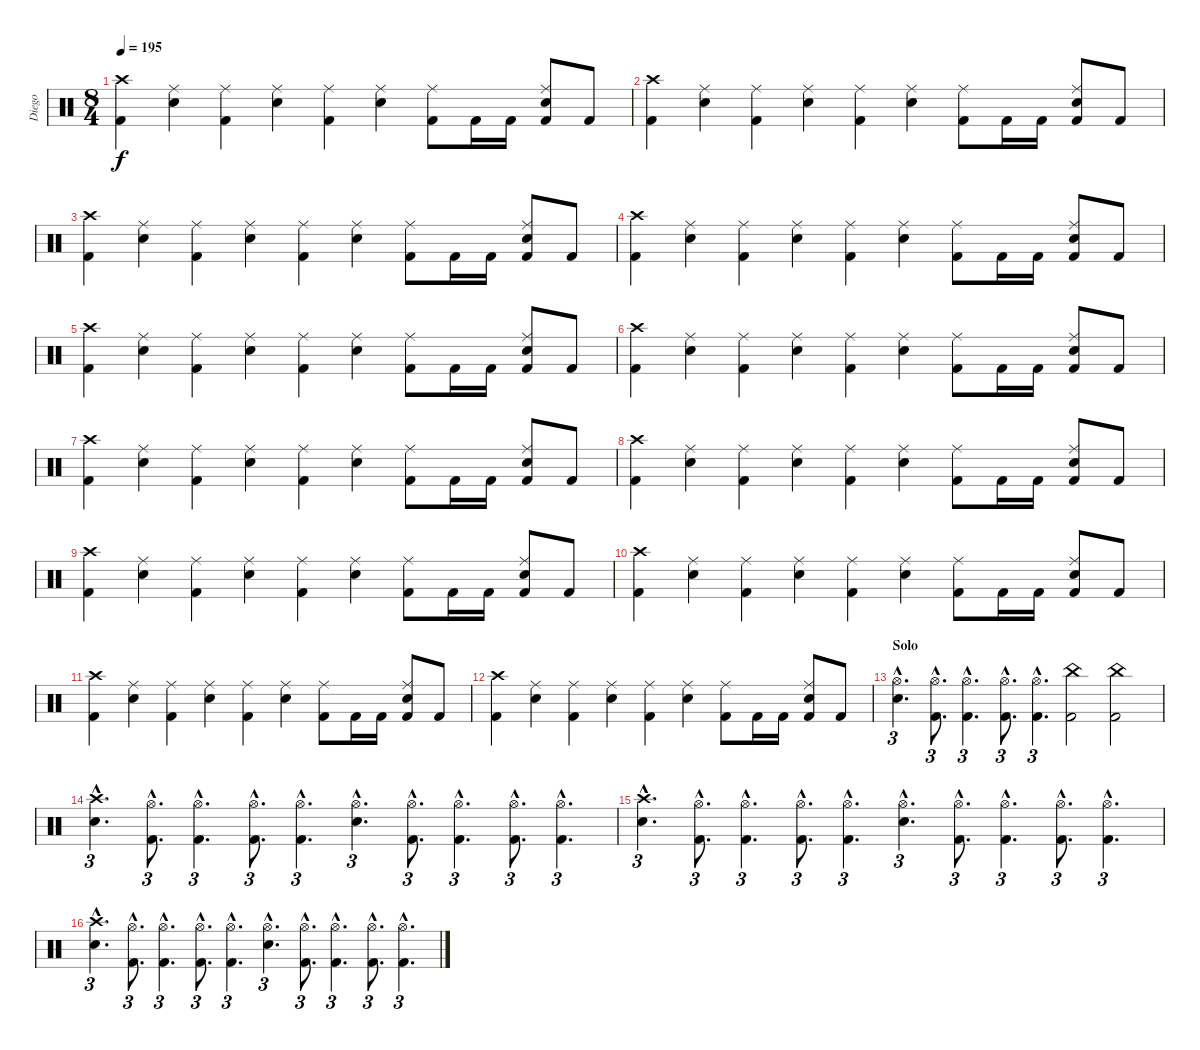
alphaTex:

\track ("Diego" "Diego") {instrument percussion}
\staff {score}
\articulation defaults
\ts (8 4)
\tempo 195
\clef neutral
\ks c
("Crash high (hit)" "Kick (hit) 2").4{dy f} ("Ride (middle)" "Electric Snare (hit)").4 ("Ride (middle)" "Kick (hit) 2").4 ("Ride (middle)" "Electric Snare (hit)").4 ("Ride (middle)" "Kick (hit) 2").4 ("Ride (middle)" "Electric Snare (hit)").4 ("Ride (middle)" "Kick (hit) 2").8 "Kick (hit) 2".16 "Kick (hit) 2".16 ("Ride (middle)" "Electric Snare (hit)" "Kick (hit) 2").8 "Kick (hit) 2".8 |
("Crash high (hit)" "Kick (hit) 2").4 ("Ride (middle)" "Electric Snare (hit)").4 ("Ride (middle)" "Kick (hit) 2").4 ("Ride (middle)" "Electric Snare (hit)").4 ("Ride (middle)" "Kick (hit) 2").4 ("Ride (middle)" "Electric Snare (hit)").4 ("Ride (middle)" "Kick (hit) 2").8 "Kick (hit) 2".16 "Kick (hit) 2".16 ("Ride (middle)" "Electric Snare (hit)" "Kick (hit) 2").8 "Kick (hit) 2".8 |
("Crash high (hit)" "Kick (hit) 2").4 ("Ride (middle)" "Electric Snare (hit)").4 ("Ride (middle)" "Kick (hit) 2").4 ("Ride (middle)" "Electric Snare (hit)").4 ("Ride (middle)" "Kick (hit) 2").4 ("Ride (middle)" "Electric Snare (hit)").4 ("Ride (middle)" "Kick (hit) 2").8 "Kick (hit) 2".16 "Kick (hit) 2".16 ("Ride (middle)" "Electric Snare (hit)" "Kick (hit) 2").8 "Kick (hit) 2".8 |
("Crash high (hit)" "Kick (hit) 2").4 ("Ride (middle)" "Electric Snare (hit)").4 ("Ride (middle)" "Kick (hit) 2").4 ("Ride (middle)" "Electric Snare (hit)").4 ("Ride (middle)" "Kick (hit) 2").4 ("Ride (middle)" "Electric Snare (hit)").4 ("Ride (middle)" "Kick (hit) 2").8 "Kick (hit) 2".16 "Kick (hit) 2".16 ("Ride (middle)" "Electric Snare (hit)" "Kick (hit) 2").8 "Kick (hit) 2".8 |
("Crash high (hit)" "Kick (hit) 2").4 ("Ride (middle)" "Electric Snare (hit)").4 ("Ride (middle)" "Kick (hit) 2").4 ("Ride (middle)" "Electric Snare (hit)").4 ("Ride (middle)" "Kick (hit) 2").4 ("Ride (middle)" "Electric Snare (hit)").4 ("Ride (middle)" "Kick (hit) 2").8 "Kick (hit) 2".16 "Kick (hit) 2".16 ("Ride (middle)" "Electric Snare (hit)" "Kick (hit) 2").8 "Kick (hit) 2".8 |
("Crash high (hit)" "Kick (hit) 2").4 ("Ride (middle)" "Electric Snare (hit)").4 ("Ride (middle)" "Kick (hit) 2").4 ("Ride (middle)" "Electric Snare (hit)").4 ("Ride (middle)" "Kick (hit) 2").4 ("Ride (middle)" "Electric Snare (hit)").4 ("Ride (middle)" "Kick (hit) 2").8 "Kick (hit) 2".16 "Kick (hit) 2".16 ("Ride (middle)" "Electric Snare (hit)" "Kick (hit) 2").8 "Kick (hit) 2".8 |
("Crash high (hit)" "Kick (hit) 2").4 ("Ride (middle)" "Electric Snare (hit)").4 ("Ride (middle)" "Kick (hit) 2").4 ("Ride (middle)" "Electric Snare (hit)").4 ("Ride (middle)" "Kick (hit) 2").4 ("Ride (middle)" "Electric Snare (hit)").4 ("Ride (middle)" "Kick (hit) 2").8 "Kick (hit) 2".16 "Kick (hit) 2".16 ("Ride (middle)" "Electric Snare (hit)" "Kick (hit) 2").8 "Kick (hit) 2".8 |
("Crash high (hit)" "Kick (hit) 2").4 ("Ride (middle)" "Electric Snare (hit)").4 ("Ride (middle)" "Kick (hit) 2").4 ("Ride (middle)" "Electric Snare (hit)").4 ("Ride (middle)" "Kick (hit) 2").4 ("Ride (middle)" "Electric Snare (hit)").4 ("Ride (middle)" "Kick (hit) 2").8 "Kick (hit) 2".16 "Kick (hit) 2".16 ("Ride (middle)" "Electric Snare (hit)" "Kick (hit) 2").8 "Kick (hit) 2".8 |
("Crash high (hit)" "Kick (hit) 2").4 ("Ride (middle)" "Electric Snare (hit)").4 ("Ride (middle)" "Kick (hit) 2").4 ("Ride (middle)" "Electric Snare (hit)").4 ("Ride (middle)" "Kick (hit) 2").4 ("Ride (middle)" "Electric Snare (hit)").4 ("Ride (middle)" "Kick (hit) 2").8 "Kick (hit) 2".16 "Kick (hit) 2".16 ("Ride (middle)" "Electric Snare (hit)" "Kick (hit) 2").8 "Kick (hit) 2".8 |
("Crash high (hit)" "Kick (hit) 2").4 ("Ride (middle)" "Electric Snare (hit)").4 ("Ride (middle)" "Kick (hit) 2").4 ("Ride (middle)" "Electric Snare (hit)").4 ("Ride (middle)" "Kick (hit) 2").4 ("Ride (middle)" "Electric Snare (hit)").4 ("Ride (middle)" "Kick (hit) 2").8 "Kick (hit) 2".16 "Kick (hit) 2".16 ("Ride (middle)" "Electric Snare (hit)" "Kick (hit) 2").8 "Kick (hit) 2".8 |
("Crash high (hit)" "Kick (hit) 2").4 ("Ride (middle)" "Electric Snare (hit)").4 ("Ride (middle)" "Kick (hit) 2").4 ("Ride (middle)" "Electric Snare (hit)").4 ("Ride (middle)" "Kick (hit) 2").4 ("Ride (middle)" "Electric Snare (hit)").4 ("Ride (middle)" "Kick (hit) 2").8 "Kick (hit) 2".16 "Kick (hit) 2".16 ("Ride (middle)" "Electric Snare (hit)" "Kick (hit) 2").8 "Kick (hit) 2".8 |
("Crash high (hit)" "Kick (hit) 2").4 ("Ride (middle)" "Electric Snare (hit)").4 ("Ride (middle)" "Kick (hit) 2").4 ("Ride (middle)" "Electric Snare (hit)").4 ("Ride (middle)" "Kick (hit) 2").4 ("Ride (middle)" "Electric Snare (hit)").4 ("Ride (middle)" "Kick (hit) 2").8 "Kick (hit) 2".16 "Kick (hit) 2".16 ("Ride (middle)" "Electric Snare (hit)" "Kick (hit) 2").8 "Kick (hit) 2".8 |
\section ("" "Solo")
("Hi-Hat (open)"{hac} "Electric Snare (hit)"{hac}).4{d tu (3 2)} ("Hi-Hat (open)"{hac} "Kick (hit) 2"{hac}).8{d tu (3 2)} ("Hi-Hat (open)"{hac} "Kick (hit) 2"{hac}).4{d tu (3 2)} ("Hi-Hat (open)"{hac} "Kick (hit) 2"{hac}).8{d tu (3 2)} ("Hi-Hat (open)"{hac} "Kick (hit) 2"{hac}).4{d tu (3 2)} ("China (hit)" "Kick (hit) 2").2 ("China (hit)" "Kick (hit) 2").2 |
("Crash high (hit)"{hac} "Electric Snare (hit)"{hac}).4{d tu (3 2)} ("Hi-Hat (open)"{hac} "Kick (hit) 2"{hac}).8{d tu (3 2)} ("Hi-Hat (open)"{hac} "Kick (hit) 2"{hac}).4{d tu (3 2)} ("Hi-Hat (open)"{hac} "Kick (hit) 2"{hac}).8{d tu (3 2)} ("Hi-Hat (open)"{hac} "Kick (hit) 2"{hac}).4{d tu (3 2)} ("Hi-Hat (open)"{hac} "Electric Snare (hit)"{hac}).4{d tu (3 2)} ("Hi-Hat (open)"{hac} "Kick (hit) 2"{hac}).8{d tu (3 2)} ("Hi-Hat (open)"{hac} "Kick (hit) 2"{hac}).4{d tu (3 2)} ("Hi-Hat (open)"{hac} "Kick (hit) 2"{hac}).8{d tu (3 2)} ("Hi-Hat (open)"{hac} "Kick (hit) 2"{hac}).4{d tu (3 2)} |
("Crash high (hit)"{hac} "Electric Snare (hit)"{hac}).4{d tu (3 2)} ("Hi-Hat (open)"{hac} "Kick (hit) 2"{hac}).8{d tu (3 2)} ("Hi-Hat (open)"{hac} "Kick (hit) 2"{hac}).4{d tu (3 2)} ("Hi-Hat (open)"{hac} "Kick (hit) 2"{hac}).8{d tu (3 2)} ("Hi-Hat (open)"{hac} "Kick (hit) 2"{hac}).4{d tu (3 2)} ("Hi-Hat (open)"{hac} "Electric Snare (hit)"{hac}).4{d tu (3 2)} ("Hi-Hat (open)"{hac} "Kick (hit) 2"{hac}).8{d tu (3 2)} ("Hi-Hat (open)"{hac} "Kick (hit) 2"{hac}).4{d tu (3 2)} ("Hi-Hat (open)"{hac} "Kick (hit) 2"{hac}).8{d tu (3 2)} ("Hi-Hat (open)"{hac} "Kick (hit) 2"{hac}).4{d tu (3 2)} |
("Crash high (hit)"{hac} "Electric Snare (hit)"{hac}).4{d tu (3 2)} ("Hi-Hat (open)"{hac} "Kick (hit) 2"{hac}).8{d tu (3 2)} ("Hi-Hat (open)"{hac} "Kick (hit) 2"{hac}).4{d tu (3 2)} ("Hi-Hat (open)"{hac} "Kick (hit) 2"{hac}).8{d tu (3 2)} ("Hi-Hat (open)"{hac} "Kick (hit) 2"{hac}).4{d tu (3 2)} ("Hi-Hat (open)"{hac} "Electric Snare (hit)"{hac}).4{d tu (3 2)} ("Hi-Hat (open)"{hac} "Kick (hit) 2"{hac}).8{d tu (3 2)} ("Hi-Hat (open)"{hac} "Kick (hit) 2"{hac}).4{d tu (3 2)} ("Hi-Hat (open)"{hac} "Kick (hit) 2"{hac}).8{d tu (3 2)} ("Hi-Hat (open)"{hac} "Kick (hit) 2"{hac}).4{d tu (3 2)}
